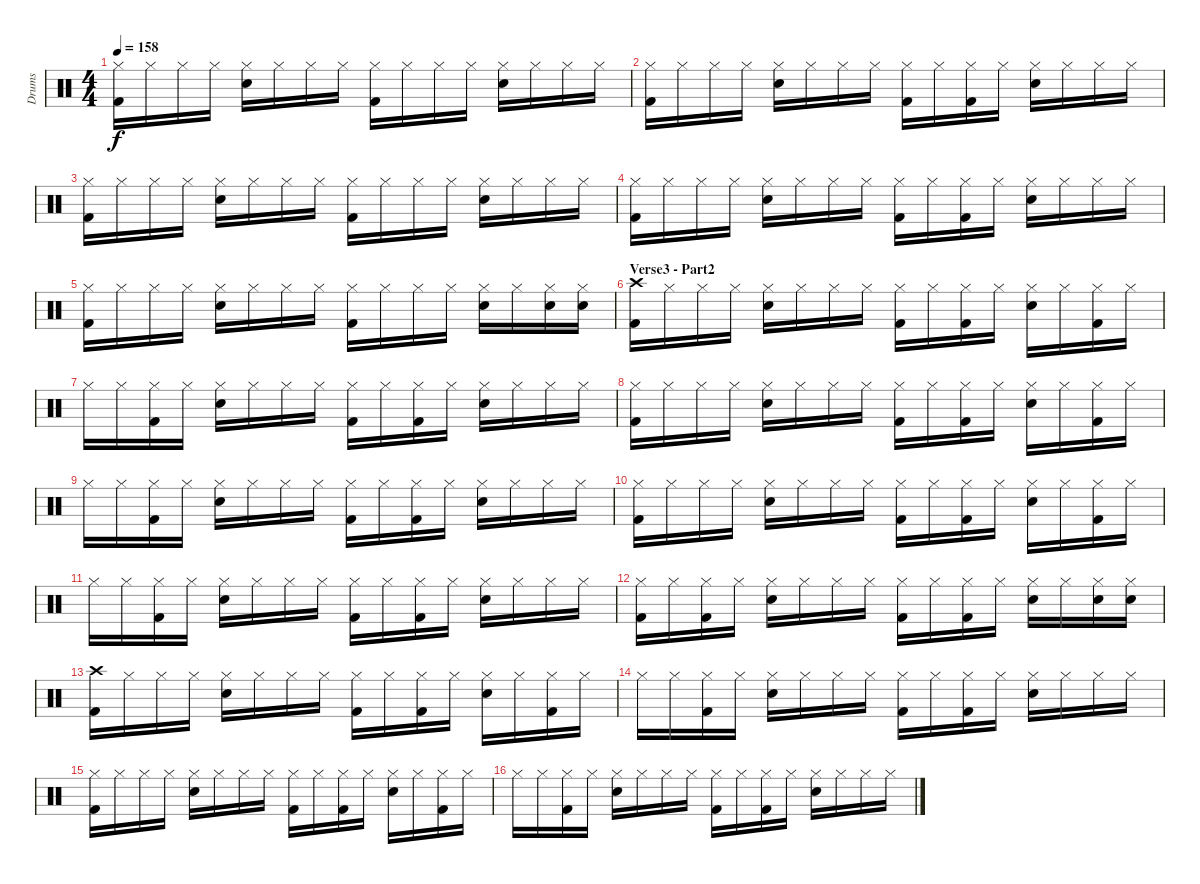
\track ("Drums" "Drums") {instrument percussion}
\staff {score}
\articulation defaults
\ts (4 4)
\tempo 158
\clef neutral
\ks c
("Hi-Hat (closed)" "Kick (hit) 2").16{dy f} "Hi-Hat (closed)".16 "Hi-Hat (closed)".16 "Hi-Hat (closed)".16 ("Hi-Hat (closed)" "Snare (hit) 2").16 "Hi-Hat (closed)".16 "Hi-Hat (closed)".16 "Hi-Hat (closed)".16 ("Hi-Hat (closed)" "Kick (hit) 2").16 "Hi-Hat (closed)".16 "Hi-Hat (closed)".16 "Hi-Hat (closed)".16 ("Hi-Hat (closed)" "Snare (hit) 2").16 "Hi-Hat (closed)".16 "Hi-Hat (closed)".16 "Hi-Hat (closed)".16 |
("Hi-Hat (closed)" "Kick (hit) 2").16 "Hi-Hat (closed)".16 "Hi-Hat (closed)".16 "Hi-Hat (closed)".16 ("Hi-Hat (closed)" "Snare (hit) 2").16 "Hi-Hat (closed)".16 "Hi-Hat (closed)".16 "Hi-Hat (closed)".16 ("Hi-Hat (closed)" "Kick (hit) 2").16 "Hi-Hat (closed)".16 ("Hi-Hat (closed)" "Kick (hit) 2").16 "Hi-Hat (closed)".16 ("Hi-Hat (closed)" "Snare (hit) 2").16 "Hi-Hat (closed)".16 "Hi-Hat (closed)".16 "Hi-Hat (closed)".16 |
("Hi-Hat (closed)" "Kick (hit) 2").16 "Hi-Hat (closed)".16 "Hi-Hat (closed)".16 "Hi-Hat (closed)".16 ("Hi-Hat (closed)" "Snare (hit) 2").16 "Hi-Hat (closed)".16 "Hi-Hat (closed)".16 "Hi-Hat (closed)".16 ("Hi-Hat (closed)" "Kick (hit) 2").16 "Hi-Hat (closed)".16 "Hi-Hat (closed)".16 "Hi-Hat (closed)".16 ("Hi-Hat (closed)" "Snare (hit) 2").16 "Hi-Hat (closed)".16 "Hi-Hat (closed)".16 "Hi-Hat (closed)".16 |
("Hi-Hat (closed)" "Kick (hit) 2").16 "Hi-Hat (closed)".16 "Hi-Hat (closed)".16 "Hi-Hat (closed)".16 ("Hi-Hat (closed)" "Snare (hit) 2").16 "Hi-Hat (closed)".16 "Hi-Hat (closed)".16 "Hi-Hat (closed)".16 ("Hi-Hat (closed)" "Kick (hit) 2").16 "Hi-Hat (closed)".16 ("Hi-Hat (closed)" "Kick (hit) 2").16 "Hi-Hat (closed)".16 ("Hi-Hat (closed)" "Snare (hit) 2").16 "Hi-Hat (closed)".16 "Hi-Hat (closed)".16 "Hi-Hat (closed)".16 |
("Hi-Hat (closed)" "Kick (hit) 2").16 "Hi-Hat (closed)".16 "Hi-Hat (closed)".16 "Hi-Hat (closed)".16 ("Hi-Hat (closed)" "Snare (hit) 2").16 "Hi-Hat (closed)".16 "Hi-Hat (closed)".16 "Hi-Hat (closed)".16 ("Hi-Hat (closed)" "Kick (hit) 2").16 "Hi-Hat (closed)".16 "Hi-Hat (closed)".16 "Hi-Hat (closed)".16 ("Hi-Hat (closed)" "Snare (hit) 2").16 "Hi-Hat (closed)".16 ("Hi-Hat (closed)" "Snare (hit) 2").16 ("Hi-Hat (closed)" "Snare (hit) 2").16 |
\section ("" "Verse3 - Part2")
("Crash high (hit)" "Kick (hit) 2").16 "Hi-Hat (closed)".16 "Hi-Hat (closed)".16 "Hi-Hat (closed)".16 ("Hi-Hat (closed)" "Snare (hit) 2").16 "Hi-Hat (closed)".16 "Hi-Hat (closed)".16 "Hi-Hat (closed)".16 ("Hi-Hat (closed)" "Kick (hit) 2").16 "Hi-Hat (closed)".16 ("Hi-Hat (closed)" "Kick (hit) 2").16 "Hi-Hat (closed)".16 ("Hi-Hat (closed)" "Snare (hit) 2").16 "Hi-Hat (closed)".16 ("Hi-Hat (closed)" "Kick (hit) 2").16 "Hi-Hat (closed)".16 |
"Hi-Hat (closed)".16 "Hi-Hat (closed)".16 ("Hi-Hat (closed)" "Kick (hit) 2").16 "Hi-Hat (closed)".16 ("Hi-Hat (closed)" "Snare (hit) 2").16 "Hi-Hat (closed)".16 "Hi-Hat (closed)".16 "Hi-Hat (closed)".16 ("Hi-Hat (closed)" "Kick (hit) 2").16 "Hi-Hat (closed)".16 ("Hi-Hat (closed)" "Kick (hit) 2").16 "Hi-Hat (closed)".16 ("Hi-Hat (closed)" "Snare (hit) 2").16 "Hi-Hat (closed)".16 "Hi-Hat (closed)".16 "Hi-Hat (closed)".16 |
("Hi-Hat (closed)" "Kick (hit) 2").16 "Hi-Hat (closed)".16 "Hi-Hat (closed)".16 "Hi-Hat (closed)".16 ("Hi-Hat (closed)" "Snare (hit) 2").16 "Hi-Hat (closed)".16 "Hi-Hat (closed)".16 "Hi-Hat (closed)".16 ("Hi-Hat (closed)" "Kick (hit) 2").16 "Hi-Hat (closed)".16 ("Hi-Hat (closed)" "Kick (hit) 2").16 "Hi-Hat (closed)".16 ("Hi-Hat (closed)" "Snare (hit) 2").16 "Hi-Hat (closed)".16 ("Hi-Hat (closed)" "Kick (hit) 2").16 "Hi-Hat (closed)".16 |
"Hi-Hat (closed)".16 "Hi-Hat (closed)".16 ("Hi-Hat (closed)" "Kick (hit) 2").16 "Hi-Hat (closed)".16 ("Hi-Hat (closed)" "Snare (hit) 2").16 "Hi-Hat (closed)".16 "Hi-Hat (closed)".16 "Hi-Hat (closed)".16 ("Hi-Hat (closed)" "Kick (hit) 2").16 "Hi-Hat (closed)".16 ("Hi-Hat (closed)" "Kick (hit) 2").16 "Hi-Hat (closed)".16 ("Hi-Hat (closed)" "Snare (hit) 2").16 "Hi-Hat (closed)".16 "Hi-Hat (closed)".16 "Hi-Hat (closed)".16 |
("Hi-Hat (closed)" "Kick (hit) 2").16 "Hi-Hat (closed)".16 "Hi-Hat (closed)".16 "Hi-Hat (closed)".16 ("Hi-Hat (closed)" "Snare (hit) 2").16 "Hi-Hat (closed)".16 "Hi-Hat (closed)".16 "Hi-Hat (closed)".16 ("Hi-Hat (closed)" "Kick (hit) 2").16 "Hi-Hat (closed)".16 ("Hi-Hat (closed)" "Kick (hit) 2").16 "Hi-Hat (closed)".16 ("Hi-Hat (closed)" "Snare (hit) 2").16 "Hi-Hat (closed)".16 ("Hi-Hat (closed)" "Kick (hit) 2").16 "Hi-Hat (closed)".16 |
"Hi-Hat (closed)".16 "Hi-Hat (closed)".16 ("Hi-Hat (closed)" "Kick (hit) 2").16 "Hi-Hat (closed)".16 ("Hi-Hat (closed)" "Snare (hit) 2").16 "Hi-Hat (closed)".16 "Hi-Hat (closed)".16 "Hi-Hat (closed)".16 ("Hi-Hat (closed)" "Kick (hit) 2").16 "Hi-Hat (closed)".16 ("Hi-Hat (closed)" "Kick (hit) 2").16 "Hi-Hat (closed)".16 ("Hi-Hat (closed)" "Snare (hit) 2").16 "Hi-Hat (closed)".16 "Hi-Hat (closed)".16 "Hi-Hat (closed)".16 |
("Hi-Hat (closed)" "Kick (hit) 2").16 "Hi-Hat (closed)".16 ("Hi-Hat (closed)" "Kick (hit) 2").16 "Hi-Hat (closed)".16 ("Hi-Hat (closed)" "Snare (hit) 2").16 "Hi-Hat (closed)".16 "Hi-Hat (closed)".16 "Hi-Hat (closed)".16 ("Hi-Hat (closed)" "Kick (hit) 2").16 "Hi-Hat (closed)".16 ("Hi-Hat (closed)" "Kick (hit) 2").16 "Hi-Hat (closed)".16 ("Hi-Hat (closed)" "Snare (hit) 2").16 "Hi-Hat (closed)".16 ("Hi-Hat (closed)" "Snare (hit) 2").16 ("Hi-Hat (closed)" "Snare (hit) 2").16 |
("Crash high (hit)" "Kick (hit) 2").16 "Hi-Hat (closed)".16 "Hi-Hat (closed)".16 "Hi-Hat (closed)".16 ("Hi-Hat (closed)" "Snare (hit) 2").16 "Hi-Hat (closed)".16 "Hi-Hat (closed)".16 "Hi-Hat (closed)".16 ("Hi-Hat (closed)" "Kick (hit) 2").16 "Hi-Hat (closed)".16 ("Hi-Hat (closed)" "Kick (hit) 2").16 "Hi-Hat (closed)".16 ("Hi-Hat (closed)" "Snare (hit) 2").16 "Hi-Hat (closed)".16 ("Hi-Hat (closed)" "Kick (hit) 2").16 "Hi-Hat (closed)".16 |
"Hi-Hat (closed)".16 "Hi-Hat (closed)".16 ("Hi-Hat (closed)" "Kick (hit) 2").16 "Hi-Hat (closed)".16 ("Hi-Hat (closed)" "Snare (hit) 2").16 "Hi-Hat (closed)".16 "Hi-Hat (closed)".16 "Hi-Hat (closed)".16 ("Hi-Hat (closed)" "Kick (hit) 2").16 "Hi-Hat (closed)".16 ("Hi-Hat (closed)" "Kick (hit) 2").16 "Hi-Hat (closed)".16 ("Hi-Hat (closed)" "Snare (hit) 2").16 "Hi-Hat (closed)".16 "Hi-Hat (closed)".16 "Hi-Hat (closed)".16 |
("Hi-Hat (closed)" "Kick (hit) 2").16 "Hi-Hat (closed)".16 "Hi-Hat (closed)".16 "Hi-Hat (closed)".16 ("Hi-Hat (closed)" "Snare (hit) 2").16 "Hi-Hat (closed)".16 "Hi-Hat (closed)".16 "Hi-Hat (closed)".16 ("Hi-Hat (closed)" "Kick (hit) 2").16 "Hi-Hat (closed)".16 ("Hi-Hat (closed)" "Kick (hit) 2").16 "Hi-Hat (closed)".16 ("Hi-Hat (closed)" "Snare (hit) 2").16 "Hi-Hat (closed)".16 ("Hi-Hat (closed)" "Kick (hit) 2").16 "Hi-Hat (closed)".16 |
"Hi-Hat (closed)".16 "Hi-Hat (closed)".16 ("Hi-Hat (closed)" "Kick (hit) 2").16 "Hi-Hat (closed)".16 ("Hi-Hat (closed)" "Snare (hit) 2").16 "Hi-Hat (closed)".16 "Hi-Hat (closed)".16 "Hi-Hat (closed)".16 ("Hi-Hat (closed)" "Kick (hit) 2").16 "Hi-Hat (closed)".16 ("Hi-Hat (closed)" "Kick (hit) 2").16 "Hi-Hat (closed)".16 ("Hi-Hat (closed)" "Snare (hit) 2").16 "Hi-Hat (closed)".16 "Hi-Hat (closed)".16 "Hi-Hat (closed)".16
